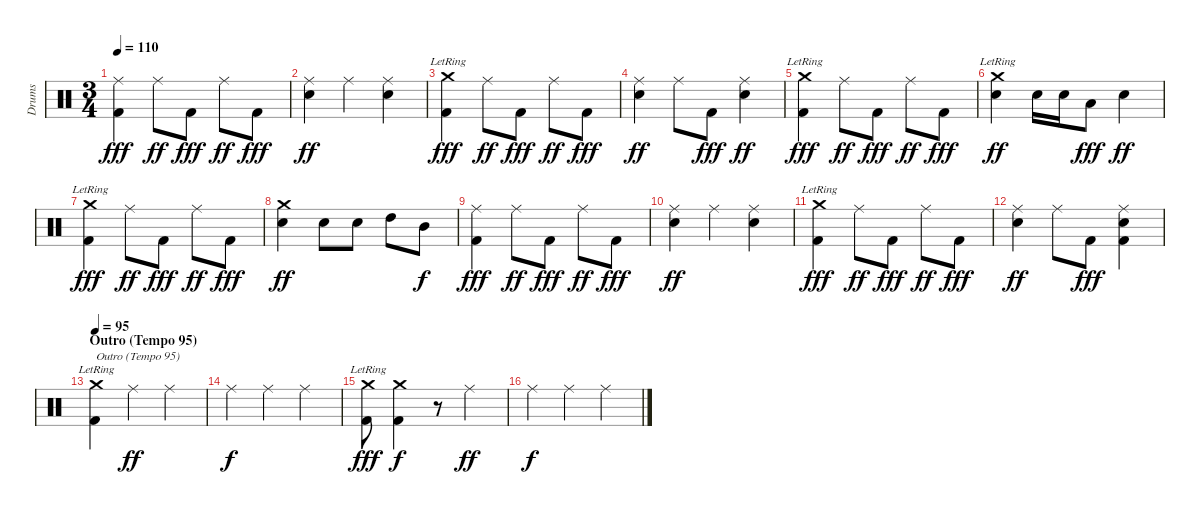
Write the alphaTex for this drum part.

\track ("Drums" "Drums") {instrument percussion}
\staff {score}
\articulation defaults
\ts (3 4)
\tempo 110
\clef neutral
\ks c
("Ride (middle)" "Kick (hit) 2").4{dy fff} "Ride (middle)".8{dy ff} "Kick (hit) 2".8{dy fff} "Ride (middle)".8{dy ff} "Kick (hit) 2".8{dy fff} |
("Ride (middle)" "Snare (hit) 2").4{dy ff} "Ride (middle)".4 ("Ride (middle)" "Snare (hit) 2").4 |
("Crash medium (hit)"{lr} "Kick (hit) 2").4{dy fff} "Ride (middle)".8{dy ff} "Kick (hit) 2".8{dy fff} "Ride (middle)".8{dy ff} "Kick (hit) 2".8{dy fff} |
("Ride (middle)" "Snare (hit) 2").4{dy ff} "Ride (middle)".8 "Kick (hit) 2".8{dy fff} ("Ride (middle)" "Snare (hit) 2").4{dy ff} |
("Crash medium (hit)"{lr} "Kick (hit) 2").4{dy fff} "Ride (middle)".8{dy ff} "Kick (hit) 2".8{dy fff} "Ride (middle)".8{dy ff} "Kick (hit) 2".8{dy fff} |
("Crash medium (hit)"{lr} "Snare (hit) 2").4{dy ff} "Snare (hit) 2".16 "Snare (hit) 2".16 "Low Tom (hit)".8{dy fff} "Snare (hit) 2".4{dy ff} |
("Crash medium (hit)"{lr} "Kick (hit) 2").4{dy fff} "Ride (middle)".8{dy ff} "Kick (hit) 2".8{dy fff} "Ride (middle)".8{dy ff} "Kick (hit) 2".8{dy fff} |
("Crash medium (hit)" "Snare (hit) 2").4{dy ff} "Snare (hit) 2".8 "Snare (hit) 2".8 "High Tom (hit)".8 "Mid Tom (hit)".8{dy f} |
("Ride (middle)" "Kick (hit) 2").4{dy fff} "Ride (middle)".8{dy ff} "Kick (hit) 2".8{dy fff} "Ride (middle)".8{dy ff} "Kick (hit) 2".8{dy fff} |
("Ride (middle)" "Snare (hit) 2").4{dy ff} "Ride (middle)".4 ("Ride (middle)" "Snare (hit) 2").4 |
("Crash medium (hit)"{lr} "Kick (hit) 2").4{dy fff} "Ride (middle)".8{dy ff} "Kick (hit) 2".8{dy fff} "Ride (middle)".8{dy ff} "Kick (hit) 2".8{dy fff} |
("Ride (middle)" "Snare (hit) 2").4{dy ff} "Ride (middle)".8 "Kick (hit) 2".8{dy fff} ("Ride (middle)" "Snare (hit) 2" "Kick (hit) 2").4 |
\section ("" "Outro (Tempo 95)")
\tempo 95
("Crash medium (hit)"{lr} "Kick (hit) 2").4{txt "Outro (Tempo 95)"} "Ride (middle)".4{dy ff} "Ride (middle)".4 |
"Ride (middle)".4{dy f} "Ride (middle)".4 "Ride (middle)".4 |
("Crash medium (hit)"{lr} "Kick (hit) 2").8{dy fff} ("Crash medium (hit)" "Kick (hit) 2").4{dy f} r.8 "Ride (middle)".4{dy ff} |
"Ride (middle)".4{dy f} "Ride (middle)".4 "Ride (middle)".4
